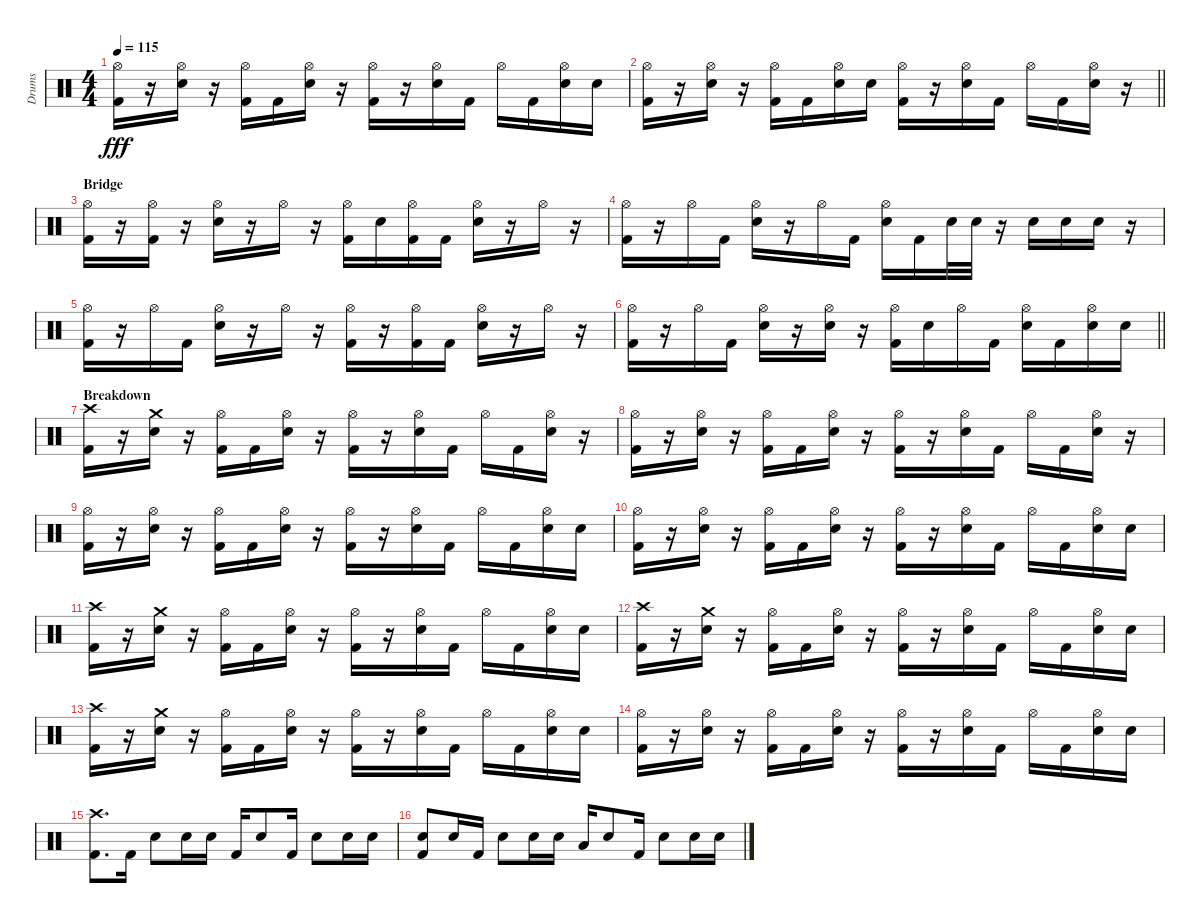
\track ("Drums" "Drums") {instrument percussion}
\staff {score}
\articulation defaults
\ts (4 4)
\tempo 115
\clef neutral
\ks c
("Hi-Hat (open)" "Kick (hit) 2").16{dy fff} r.16 ("Hi-Hat (open)" "Snare (hit) 2").16 r.16 ("Hi-Hat (open)" "Kick (hit) 2").16 "Kick (hit) 2".16 ("Hi-Hat (open)" "Snare (hit) 2").16 r.16 ("Hi-Hat (open)" "Kick (hit) 2").16 r.16 ("Hi-Hat (open)" "Snare (hit) 2").16 "Kick (hit) 2".16 "Hi-Hat (open)".16 "Kick (hit) 2".16 ("Hi-Hat (open)" "Snare (hit) 2").16 "Snare (hit) 2".16 |
\barLineRight lightlight
("Hi-Hat (open)" "Kick (hit) 2").16 r.16 ("Hi-Hat (open)" "Snare (hit) 2").16 r.16 ("Hi-Hat (open)" "Kick (hit) 2").16 "Kick (hit) 2".16 ("Hi-Hat (open)" "Snare (hit) 2").16 "Snare (hit) 2".16 ("Hi-Hat (open)" "Kick (hit) 2").16 r.16 ("Hi-Hat (open)" "Snare (hit) 2").16 "Kick (hit) 2".16 "Hi-Hat (open)".16 "Kick (hit) 2".16 ("Hi-Hat (open)" "Snare (hit) 2").16 r.16 |
\section ("" "Bridge")
("Hi-Hat (open)" "Kick (hit) 2").16 r.16 ("Hi-Hat (open)" "Kick (hit) 2").16 r.16 ("Hi-Hat (open)" "Snare (hit) 2").16 r.16 "Hi-Hat (open)".16 r.16 ("Hi-Hat (open)" "Kick (hit) 2").16 "Snare (hit) 2".16 ("Hi-Hat (open)" "Kick (hit) 2").16 "Kick (hit) 2".16 ("Hi-Hat (open)" "Snare (hit) 2").16 r.16 "Hi-Hat (open)".16 r.16 |
("Hi-Hat (open)" "Kick (hit) 2").16 r.16 "Hi-Hat (open)".16 "Kick (hit) 2".16 ("Hi-Hat (open)" "Snare (hit) 2").16 r.16 "Hi-Hat (open)".16 "Kick (hit) 2".16 ("Hi-Hat (open)" "Snare (hit) 2").16 "Kick (hit) 2".16 "Snare (hit) 2".32 "Snare (hit) 2".32 r.16 "Snare (hit) 2".16 "Snare (hit) 2".16 "Snare (hit) 2".16 r.16 |
("Hi-Hat (open)" "Kick (hit) 2").16 r.16 "Hi-Hat (open)".16 "Kick (hit) 2".16 ("Hi-Hat (open)" "Snare (hit) 2").16 r.16 "Hi-Hat (open)".16 r.16 ("Hi-Hat (open)" "Kick (hit) 2").16 r.16 ("Hi-Hat (open)" "Kick (hit) 2").16 "Kick (hit) 2".16 ("Hi-Hat (open)" "Snare (hit) 2").16 r.16 "Hi-Hat (open)".16 r.16 |
\barLineRight lightlight
("Hi-Hat (open)" "Kick (hit) 2").16 r.16 "Hi-Hat (open)".16 "Kick (hit) 2".16 ("Hi-Hat (open)" "Snare (hit) 2").16 r.16 ("Hi-Hat (open)" "Snare (hit) 2").16 r.16 ("Hi-Hat (open)" "Kick (hit) 2").16 "Snare (hit) 2".16 "Hi-Hat (open)".16 "Kick (hit) 2".16 ("Hi-Hat (open)" "Snare (hit) 2").16 "Kick (hit) 2".16 ("Hi-Hat (open)" "Snare (hit) 2").16 "Snare (hit) 2".16 |
\section ("" "Breakdown")
("Crash high (hit)" "Kick (hit) 2").16 r.16 ("Crash medium (hit)" "Snare (hit) 2").16 r.16 ("Hi-Hat (open)" "Kick (hit) 2").16 "Kick (hit) 2".16 ("Hi-Hat (open)" "Snare (hit) 2").16 r.16 ("Hi-Hat (open)" "Kick (hit) 2").16 r.16 ("Hi-Hat (open)" "Snare (hit) 2").16 "Kick (hit) 2".16 "Hi-Hat (open)".16 "Kick (hit) 2".16 ("Hi-Hat (open)" "Snare (hit) 2").16 r.16 |
("Hi-Hat (open)" "Kick (hit) 2").16 r.16 ("Hi-Hat (open)" "Snare (hit) 2").16 r.16 ("Hi-Hat (open)" "Kick (hit) 2").16 "Kick (hit) 2".16 ("Hi-Hat (open)" "Snare (hit) 2").16 r.16 ("Hi-Hat (open)" "Kick (hit) 2").16 r.16 ("Hi-Hat (open)" "Snare (hit) 2").16 "Kick (hit) 2".16 "Hi-Hat (open)".16 "Kick (hit) 2".16 ("Hi-Hat (open)" "Snare (hit) 2").16 r.16 |
("Hi-Hat (open)" "Kick (hit) 2").16 r.16 ("Hi-Hat (open)" "Snare (hit) 2").16 r.16 ("Hi-Hat (open)" "Kick (hit) 2").16 "Kick (hit) 2".16 ("Hi-Hat (open)" "Snare (hit) 2").16 r.16 ("Hi-Hat (open)" "Kick (hit) 2").16 r.16 ("Hi-Hat (open)" "Snare (hit) 2").16 "Kick (hit) 2".16 "Hi-Hat (open)".16 "Kick (hit) 2".16 ("Hi-Hat (open)" "Snare (hit) 2").16 "Snare (hit) 2".16 |
("Hi-Hat (open)" "Kick (hit) 2").16 r.16 ("Hi-Hat (open)" "Snare (hit) 2").16 r.16 ("Hi-Hat (open)" "Kick (hit) 2").16 "Kick (hit) 2".16 ("Hi-Hat (open)" "Snare (hit) 2").16 r.16 ("Hi-Hat (open)" "Kick (hit) 2").16 r.16 ("Hi-Hat (open)" "Snare (hit) 2").16 "Kick (hit) 2".16 "Hi-Hat (open)".16 "Kick (hit) 2".16 ("Hi-Hat (open)" "Snare (hit) 2").16 "Snare (hit) 2".16 |
("Crash high (hit)" "Kick (hit) 2").16 r.16 ("Crash medium (hit)" "Snare (hit) 2").16 r.16 ("Hi-Hat (open)" "Kick (hit) 2").16 "Kick (hit) 2".16 ("Hi-Hat (open)" "Snare (hit) 2").16 r.16 ("Hi-Hat (open)" "Kick (hit) 2").16 r.16 ("Hi-Hat (open)" "Snare (hit) 2").16 "Kick (hit) 2".16 "Hi-Hat (open)".16 "Kick (hit) 2".16 ("Hi-Hat (open)" "Snare (hit) 2").16 "Snare (hit) 2".16 |
("Crash high (hit)" "Kick (hit) 2").16 r.16 ("Crash medium (hit)" "Snare (hit) 2").16 r.16 ("Hi-Hat (open)" "Kick (hit) 2").16 "Kick (hit) 2".16 ("Hi-Hat (open)" "Snare (hit) 2").16 r.16 ("Hi-Hat (open)" "Kick (hit) 2").16 r.16 ("Hi-Hat (open)" "Snare (hit) 2").16 "Kick (hit) 2".16 "Hi-Hat (open)".16 "Kick (hit) 2".16 ("Hi-Hat (open)" "Snare (hit) 2").16 "Snare (hit) 2".16 |
("Crash high (hit)" "Kick (hit) 2").16 r.16 ("Crash medium (hit)" "Snare (hit) 2").16 r.16 ("Hi-Hat (open)" "Kick (hit) 2").16 "Kick (hit) 2".16 ("Hi-Hat (open)" "Snare (hit) 2").16 r.16 ("Hi-Hat (open)" "Kick (hit) 2").16 r.16 ("Hi-Hat (open)" "Snare (hit) 2").16 "Kick (hit) 2".16 "Hi-Hat (open)".16 "Kick (hit) 2".16 ("Hi-Hat (open)" "Snare (hit) 2").16 "Snare (hit) 2".16 |
("Hi-Hat (open)" "Kick (hit) 2").16 r.16 ("Hi-Hat (open)" "Snare (hit) 2").16 r.16 ("Hi-Hat (open)" "Kick (hit) 2").16 "Kick (hit) 2".16 ("Hi-Hat (open)" "Snare (hit) 2").16 r.16 ("Hi-Hat (open)" "Kick (hit) 2").16 r.16 ("Hi-Hat (open)" "Snare (hit) 2").16 "Kick (hit) 2".16 "Hi-Hat (open)".16 "Kick (hit) 2".16 ("Hi-Hat (open)" "Snare (hit) 2").16 "Snare (hit) 2".16 |
("Crash high (hit)" "Kick (hit) 2").8{d} "Kick (hit) 2".16 "Snare (hit) 2".8 "Snare (hit) 2".16 "Snare (hit) 2".16 "Kick (hit) 2".16 "Snare (hit) 2".8 "Kick (hit) 2".16 "Snare (hit) 2".8 "Snare (hit) 2".16 "Snare (hit) 2".16 |
("Snare (hit) 2" "Kick (hit) 2").8 "Snare (hit) 2".16 "Kick (hit) 2".16 "Snare (hit) 2".8 "Snare (hit) 2".16 "Snare (hit) 2".16 "Low Tom (hit)".16 "Snare (hit) 2".8 "Kick (hit) 2".16 "Snare (hit) 2".8 "Snare (hit) 2".16 "Snare (hit) 2".16
